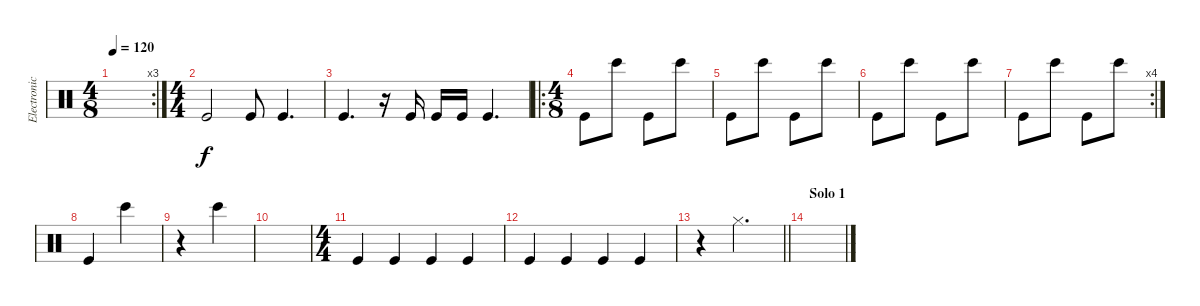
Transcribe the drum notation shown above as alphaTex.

\track ("Electronic Drums" "Electronic") {instrument percussion}
\staff {score}
\articulation defaults
\rc 3
\ts (4 8)
\tempo 120
\clef neutral
\ks c
|
\ts (4 4)
"Kick (hit)".2 "Kick (hit)".8 "Kick (hit)".4{d} |
"Kick (hit)".4{d} r.16 "Kick (hit)".16 "Kick (hit)".16 "Kick (hit)".16 "Kick (hit)".4{d} |
\ro
\ts (4 8)
"Kick (hit)".8 "Bongo High (hit)".8 "Kick (hit)".8 "Bongo High (hit)".8 |
"Kick (hit)".8 "Bongo High (hit)".8 "Kick (hit)".8 "Bongo High (hit)".8 |
"Kick (hit)".8 "Bongo High (hit)".8 "Kick (hit)".8 "Bongo High (hit)".8 |
\rc 4 "Kick (hit)".8 "Bongo High (hit)".8 "Kick (hit)".8 "Bongo High (hit)".8
|
"Kick (hit)".4 "Bongo High (hit)".4 |
r.4 "Bongo High (hit)".4 |
|
\ts (4 4)
"Kick (hit)".4 "Kick (hit)".4 "Kick (hit)".4 "Kick (hit)".4 |
"Kick (hit)".4 "Kick (hit)".4 "Kick (hit)".4 "Kick (hit)".4 |
\barLineRight lightlight
r.4 "Hi-Hat (closed)".2{d} |
\section ("" "Solo 1")
